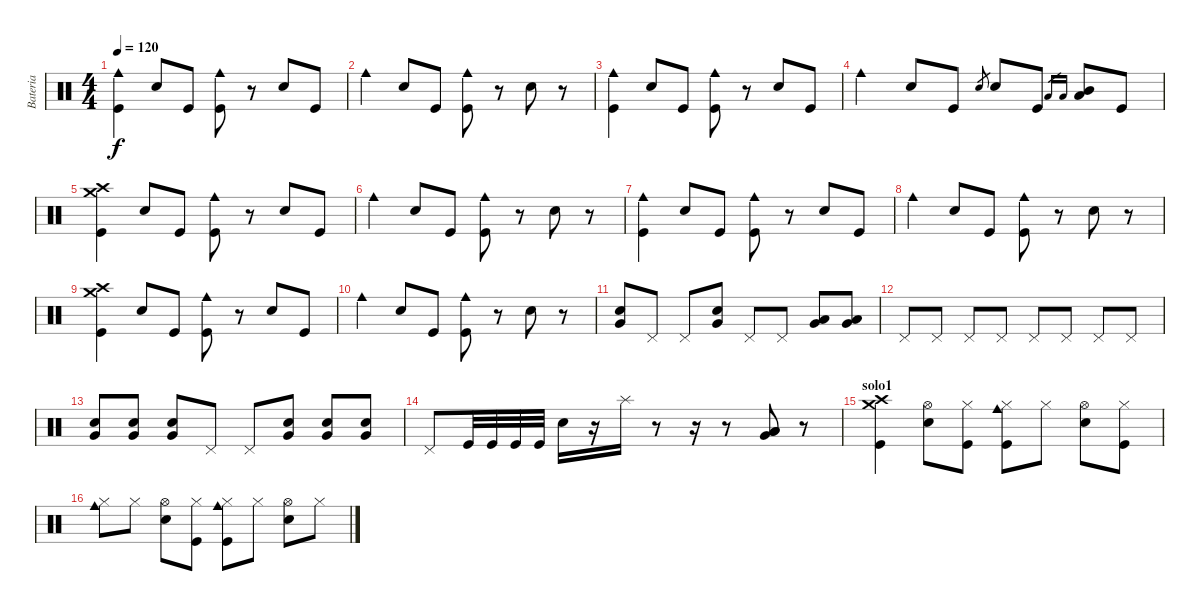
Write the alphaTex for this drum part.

\track ("Bateria" "Bateria") {instrument percussion}
\staff {score}
\articulation defaults
\ts (4 4)
\tempo 120
\clef neutral
\ks c
("Cowbell medium (hit)" "Kick (hit)").4{dy f} "Electric Snare (hit)".8 "Kick (hit)".8 ("Cowbell medium (hit)" "Kick (hit)").8 r.8 "Electric Snare (hit)".8 "Kick (hit)".8 |
"Cowbell medium (hit)".4 "Electric Snare (hit)".8 "Kick (hit)".8 ("Cowbell medium (hit)" "Kick (hit)").8 r.8 "Electric Snare (hit)".8 r.8 |
("Cowbell medium (hit)" "Kick (hit)").4 "Electric Snare (hit)".8 "Kick (hit)".8 ("Cowbell medium (hit)" "Kick (hit)").8 r.8 "Electric Snare (hit)".8 "Kick (hit)".8 |
"Cowbell medium (hit)".4 "Electric Snare (hit)".8 "Kick (hit)".8 "Electric Snare (hit)".8{gr} "Electric Snare (hit)".8 "Kick (hit)".8 "Low Tom (hit)".16{gr} "Low Tom (hit)".16{gr} ("Mid Tom (hit)" "Low Tom (hit)").8 "Kick (hit)".8 |
("Crash medium (hit)" "Crash high (hit)" "Kick (hit)").4 "Electric Snare (hit)".8 "Kick (hit)".8 ("Cowbell medium (hit)" "Kick (hit)").8 r.8 "Electric Snare (hit)".8 "Kick (hit)".8 |
"Cowbell medium (hit)".4 "Electric Snare (hit)".8 "Kick (hit)".8 ("Cowbell medium (hit)" "Kick (hit)").8 r.8 "Electric Snare (hit)".8 r.8 |
("Cowbell medium (hit)" "Kick (hit)").4 "Electric Snare (hit)".8 "Kick (hit)".8 ("Cowbell medium (hit)" "Kick (hit)").8 r.8 "Electric Snare (hit)".8 "Kick (hit)".8 |
"Cowbell medium (hit)".4 "Electric Snare (hit)".8 "Kick (hit)".8 ("Cowbell medium (hit)" "Kick (hit)").8 r.8 "Electric Snare (hit)".8 r.8 |
("Crash medium (hit)" "Crash high (hit)" "Kick (hit)").4 "Electric Snare (hit)".8 "Kick (hit)".8 ("Cowbell medium (hit)" "Kick (hit)").8 r.8 "Electric Snare (hit)".8 "Kick (hit)".8 |
"Cowbell medium (hit)".4 "Electric Snare (hit)".8 "Kick (hit)".8 ("Cowbell medium (hit)" "Kick (hit)").8 r.8 "Electric Snare (hit)".8 r.8 |
("Very Low Tom (hit)" "Electric Snare (hit)").8 "Pedal Hi-Hat (hit)".8 "Pedal Hi-Hat (hit)".8 ("Very Low Tom (hit)" "Electric Snare (hit)").8 "Pedal Hi-Hat (hit)".8 "Pedal Hi-Hat (hit)".8 ("Very Low Tom (hit)" "Low Floor Tom (hit)").8 ("Very Low Tom (hit)" "Low Floor Tom (hit)").8 |
"Pedal Hi-Hat (hit)".8 "Pedal Hi-Hat (hit)".8 "Pedal Hi-Hat (hit)".8 "Pedal Hi-Hat (hit)".8 "Pedal Hi-Hat (hit)".8 "Pedal Hi-Hat (hit)".8 "Pedal Hi-Hat (hit)".8 "Pedal Hi-Hat (hit)".8 |
("Very Low Tom (hit)" "Electric Snare (hit)").8 ("Very Low Tom (hit)" "Electric Snare (hit)").8 ("Very Low Tom (hit)" "Electric Snare (hit)").8 "Pedal Hi-Hat (hit)".8 "Pedal Hi-Hat (hit)".8 ("Very Low Tom (hit)" "Electric Snare (hit)").8 ("Very Low Tom (hit)" "Electric Snare (hit)").8 ("Very Low Tom (hit)" "Electric Snare (hit)").8 |
"Pedal Hi-Hat (hit)".8 "Kick (hit)".32 "Kick (hit)".32 "Kick (hit)".32 "Kick (hit)".32 "Electric Snare (hit)".16 r.16 "Splash (hit)".16 r.8 r.16 r.8 ("Low Tom (hit)" "Very Low Tom (hit)" "Low Floor Tom (hit)").8 r.8 |
\section ("" "solo1")
("Crash medium (hit)" "Crash high (hit)" "Kick (hit)").4 ("Hi-Hat (open)" "Electric Snare (hit)").8 ("Hi-Hat (closed)" "Kick (hit)").8 ("Hi-Hat (closed)" "Cowbell medium (hit)" "Kick (hit)").8 "Hi-Hat (closed)".8 ("Hi-Hat (open)" "Electric Snare (hit)").8 ("Hi-Hat (closed)" "Kick (hit)").8 |
("Hi-Hat (closed)" "Cowbell medium (hit)").8 "Hi-Hat (closed)".8 ("Hi-Hat (open)" "Electric Snare (hit)").8 ("Hi-Hat (closed)" "Kick (hit)").8 ("Hi-Hat (closed)" "Cowbell medium (hit)" "Kick (hit)").8 "Hi-Hat (closed)".8 ("Hi-Hat (open)" "Electric Snare (hit)").8 "Hi-Hat (closed)".8
